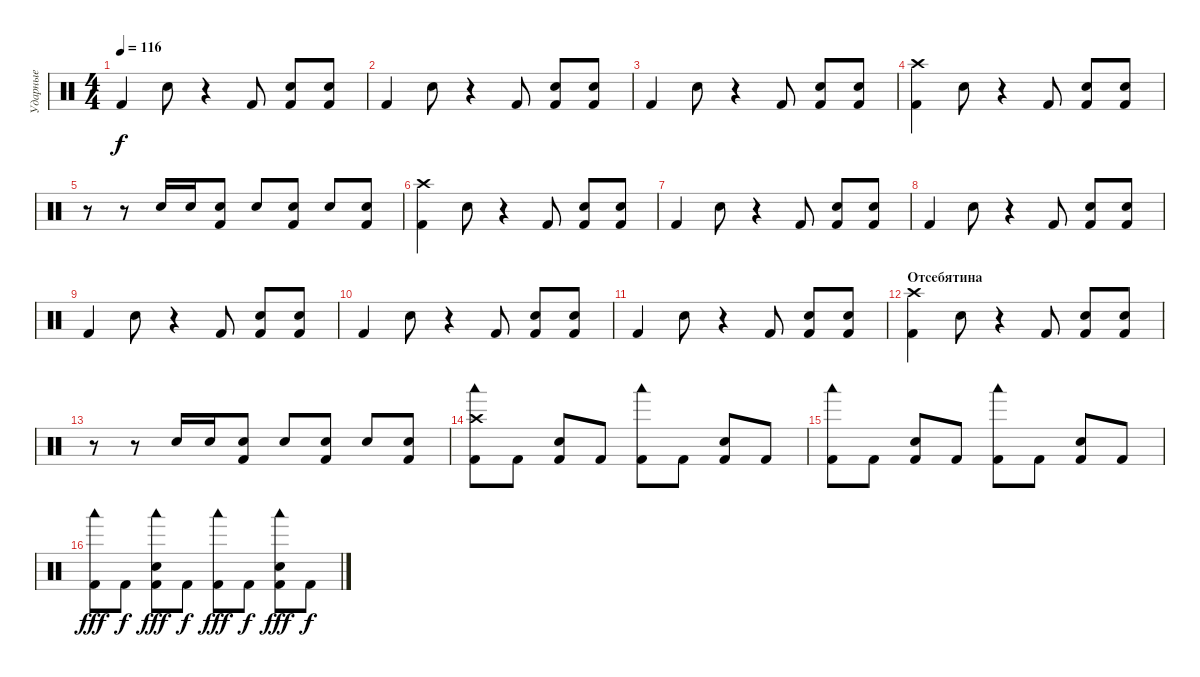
\track ("Ударные" "Ударные") {instrument percussion}
\staff {score}
\articulation defaults
\ts (4 4)
\tempo 116
\clef neutral
\ks c "Kick (hit) 2".4{dy f} "Electric Snare (hit)".8
r.4 "Kick (hit) 2".8 ("Electric Snare (hit)" "Kick (hit) 2").8 ("Electric Snare (hit)" "Kick (hit) 2").8 |
"Kick (hit) 2".4 "Electric Snare (hit)".8 r.4 "Kick (hit) 2".8 ("Electric Snare (hit)" "Kick (hit) 2").8 ("Electric Snare (hit)" "Kick (hit) 2").8 |
"Kick (hit) 2".4 "Electric Snare (hit)".8 r.4 "Kick (hit) 2".8 ("Electric Snare (hit)" "Kick (hit) 2").8 ("Electric Snare (hit)" "Kick (hit) 2").8 |
("Crash high (hit)" "Kick (hit) 2").4 "Electric Snare (hit)".8 r.4 "Kick (hit) 2".8 ("Electric Snare (hit)" "Kick (hit) 2").8 ("Electric Snare (hit)" "Kick (hit) 2").8 |
r.8 r.8 "Electric Snare (hit)".16 "Electric Snare (hit)".16 ("Electric Snare (hit)" "Kick (hit) 2").8 "Electric Snare (hit)".8 ("Electric Snare (hit)" "Kick (hit) 2").8 "Electric Snare (hit)".8 ("Electric Snare (hit)" "Kick (hit) 2").8 |
("Crash high (hit)" "Kick (hit) 2").4 "Electric Snare (hit)".8 r.4 "Kick (hit) 2".8 ("Electric Snare (hit)" "Kick (hit) 2").8 ("Electric Snare (hit)" "Kick (hit) 2").8 |
"Kick (hit) 2".4 "Electric Snare (hit)".8 r.4 "Kick (hit) 2".8 ("Electric Snare (hit)" "Kick (hit) 2").8 ("Electric Snare (hit)" "Kick (hit) 2").8 |
"Kick (hit) 2".4 "Electric Snare (hit)".8 r.4 "Kick (hit) 2".8 ("Electric Snare (hit)" "Kick (hit) 2").8 ("Electric Snare (hit)" "Kick (hit) 2").8 |
"Kick (hit) 2".4 "Electric Snare (hit)".8 r.4 "Kick (hit) 2".8 ("Electric Snare (hit)" "Kick (hit) 2").8 ("Electric Snare (hit)" "Kick (hit) 2").8 |
"Kick (hit) 2".4 "Electric Snare (hit)".8 r.4 "Kick (hit) 2".8 ("Electric Snare (hit)" "Kick (hit) 2").8 ("Electric Snare (hit)" "Kick (hit) 2").8 |
"Kick (hit) 2".4 "Electric Snare (hit)".8 r.4 "Kick (hit) 2".8 ("Electric Snare (hit)" "Kick (hit) 2").8 ("Electric Snare (hit)" "Kick (hit) 2").8 |
\section ("" "Отсебятина")
("Crash high (hit)" "Kick (hit) 2").4 "Electric Snare (hit)".8 r.4 "Kick (hit) 2".8 ("Electric Snare (hit)" "Kick (hit) 2").8 ("Electric Snare (hit)" "Kick (hit) 2").8 |
r.8 r.8 "Electric Snare (hit)".16 "Electric Snare (hit)".16 ("Electric Snare (hit)" "Kick (hit) 2").8 "Electric Snare (hit)".8 ("Electric Snare (hit)" "Kick (hit) 2").8 "Electric Snare (hit)".8 ("Electric Snare (hit)" "Kick (hit) 2").8 |
("Kick (hit) 2" "Crash high (hit)" "Woodblock low (hit)").8{volume 16} "Kick (hit) 2".8 ("Kick (hit) 2" "Electric Snare (hit)").8 "Kick (hit) 2".8 ("Kick (hit) 2" "Woodblock low (hit)").8 "Kick (hit) 2".8 ("Kick (hit) 2" "Electric Snare (hit)").8 "Kick (hit) 2".8 |
("Kick (hit) 2" "Woodblock low (hit)").8 "Kick (hit) 2".8 ("Kick (hit) 2" "Electric Snare (hit)").8 "Kick (hit) 2".8 ("Kick (hit) 2" "Woodblock low (hit)").8 "Kick (hit) 2".8 ("Kick (hit) 2" "Electric Snare (hit)").8 "Kick (hit) 2".8 |
("Kick (hit) 2" "Woodblock low (hit)").8{dy fff} "Kick (hit) 2".8{dy f} ("Kick (hit) 2" "Electric Snare (hit)" "Woodblock low (hit)").8{dy fff} "Kick (hit) 2".8{dy f} ("Kick (hit) 2" "Woodblock low (hit)").8{dy fff} "Kick (hit) 2".8{dy f} ("Kick (hit) 2" "Electric Snare (hit)" "Woodblock low (hit)").8{dy fff} "Kick (hit) 2".8{dy f}
